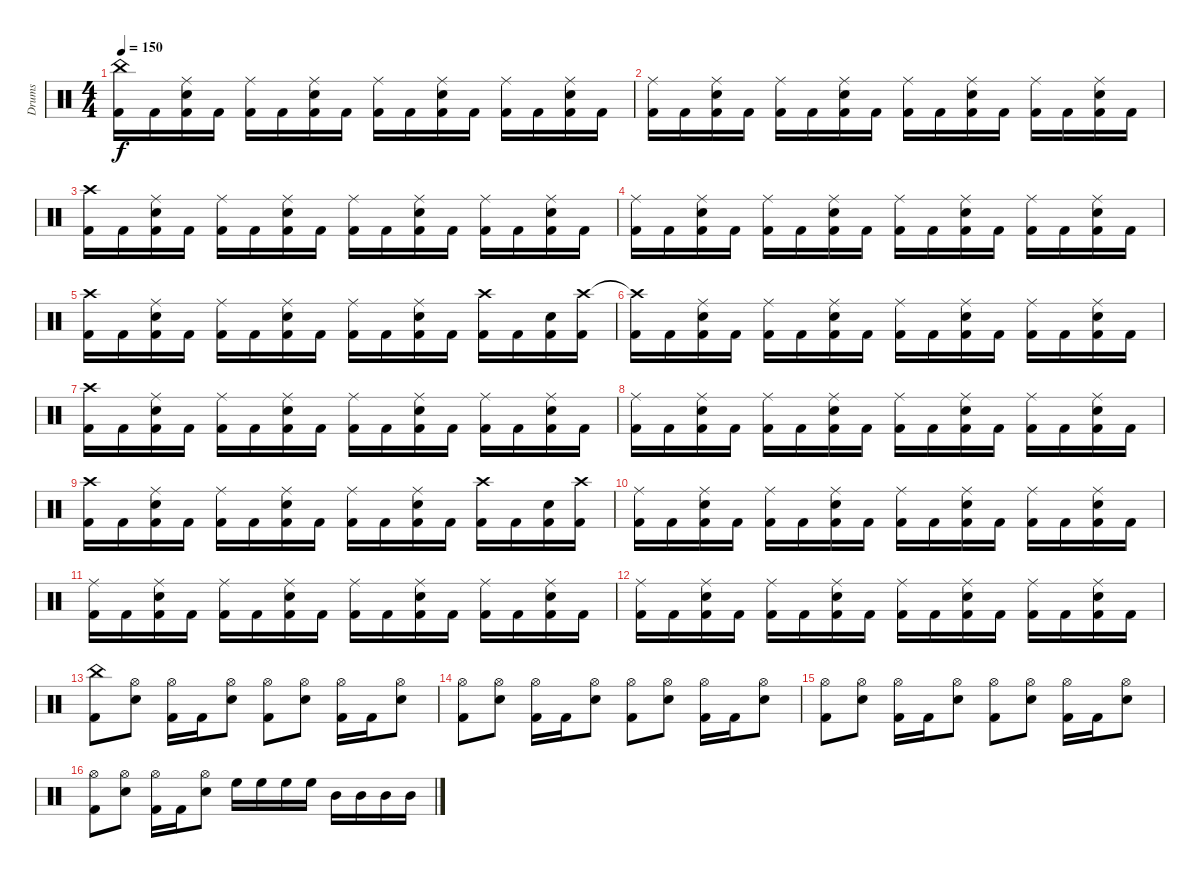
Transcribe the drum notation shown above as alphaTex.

\track ("Drums" "Drums") {instrument percussion}
\staff {score}
\articulation defaults
\ts (4 4)
\tempo 150
\clef neutral
\ks c
("China (hit)" "Kick (hit) 2").16{dy f} "Kick (hit) 2".16 ("Ride (middle)" "Snare (hit) 2" "Kick (hit) 2").16 "Kick (hit) 2".16 ("Ride (middle)" "Kick (hit) 2").16 "Kick (hit) 2".16 ("Ride (middle)" "Snare (hit) 2" "Kick (hit) 2").16 "Kick (hit) 2".16 ("Ride (middle)" "Kick (hit) 2").16 "Kick (hit) 2".16 ("Ride (middle)" "Snare (hit) 2" "Kick (hit) 2").16 "Kick (hit) 2".16 ("Ride (middle)" "Kick (hit) 2").16 "Kick (hit) 2".16 ("Ride (middle)" "Snare (hit) 2" "Kick (hit) 2").16 "Kick (hit) 2".16 |
("Ride (middle)" "Kick (hit) 2").16 "Kick (hit) 2".16 ("Ride (middle)" "Snare (hit) 2" "Kick (hit) 2").16 "Kick (hit) 2".16 ("Ride (middle)" "Kick (hit) 2").16 "Kick (hit) 2".16 ("Ride (middle)" "Snare (hit) 2" "Kick (hit) 2").16 "Kick (hit) 2".16 ("Ride (middle)" "Kick (hit) 2").16 "Kick (hit) 2".16 ("Ride (middle)" "Snare (hit) 2" "Kick (hit) 2").16 "Kick (hit) 2".16 ("Ride (middle)" "Kick (hit) 2").16 "Kick (hit) 2".16 ("Ride (middle)" "Snare (hit) 2" "Kick (hit) 2").16 "Kick (hit) 2".16 |
("Crash high (hit)" "Kick (hit) 2").16 "Kick (hit) 2".16 ("Ride (middle)" "Snare (hit) 2" "Kick (hit) 2").16 "Kick (hit) 2".16 ("Ride (middle)" "Kick (hit) 2").16 "Kick (hit) 2".16 ("Ride (middle)" "Snare (hit) 2" "Kick (hit) 2").16 "Kick (hit) 2".16 ("Ride (middle)" "Kick (hit) 2").16 "Kick (hit) 2".16 ("Ride (middle)" "Snare (hit) 2" "Kick (hit) 2").16 "Kick (hit) 2".16 ("Ride (middle)" "Kick (hit) 2").16 "Kick (hit) 2".16 ("Ride (middle)" "Snare (hit) 2" "Kick (hit) 2").16 "Kick (hit) 2".16 |
("Ride (middle)" "Kick (hit) 2").16 "Kick (hit) 2".16 ("Ride (middle)" "Snare (hit) 2" "Kick (hit) 2").16 "Kick (hit) 2".16 ("Ride (middle)" "Kick (hit) 2").16 "Kick (hit) 2".16 ("Ride (middle)" "Snare (hit) 2" "Kick (hit) 2").16 "Kick (hit) 2".16 ("Ride (middle)" "Kick (hit) 2").16 "Kick (hit) 2".16 ("Ride (middle)" "Snare (hit) 2" "Kick (hit) 2").16 "Kick (hit) 2".16 ("Ride (middle)" "Kick (hit) 2").16 "Kick (hit) 2".16 ("Ride (middle)" "Snare (hit) 2" "Kick (hit) 2").16 "Kick (hit) 2".16 |
("Crash high (hit)" "Kick (hit) 2").16 "Kick (hit) 2".16 ("Ride (middle)" "Snare (hit) 2" "Kick (hit) 2").16 "Kick (hit) 2".16 ("Ride (middle)" "Kick (hit) 2").16 "Kick (hit) 2".16 ("Ride (middle)" "Snare (hit) 2" "Kick (hit) 2").16 "Kick (hit) 2".16 ("Ride (middle)" "Kick (hit) 2").16 "Kick (hit) 2".16 ("Ride (middle)" "Snare (hit) 2" "Kick (hit) 2").16 "Kick (hit) 2".16 ("Crash high (hit)" "Kick (hit) 2").16 "Kick (hit) 2".16 ("Snare (hit) 2" "Kick (hit) 2").16 ("Crash high (hit)" "Kick (hit) 2").16 |
("Crash high (hit)"{t} "Kick (hit) 2").16 "Kick (hit) 2".16 ("Ride (middle)" "Snare (hit) 2" "Kick (hit) 2").16 "Kick (hit) 2".16 ("Ride (middle)" "Kick (hit) 2").16 "Kick (hit) 2".16 ("Ride (middle)" "Snare (hit) 2" "Kick (hit) 2").16 "Kick (hit) 2".16 ("Ride (middle)" "Kick (hit) 2").16 "Kick (hit) 2".16 ("Ride (middle)" "Snare (hit) 2" "Kick (hit) 2").16 "Kick (hit) 2".16 ("Ride (middle)" "Kick (hit) 2").16 "Kick (hit) 2".16 ("Ride (middle)" "Snare (hit) 2" "Kick (hit) 2").16 "Kick (hit) 2".16 |
("Crash high (hit)" "Kick (hit) 2").16 "Kick (hit) 2".16 ("Ride (middle)" "Snare (hit) 2" "Kick (hit) 2").16 "Kick (hit) 2".16 ("Ride (middle)" "Kick (hit) 2").16 "Kick (hit) 2".16 ("Ride (middle)" "Snare (hit) 2" "Kick (hit) 2").16 "Kick (hit) 2".16 ("Ride (middle)" "Kick (hit) 2").16 "Kick (hit) 2".16 ("Ride (middle)" "Snare (hit) 2" "Kick (hit) 2").16 "Kick (hit) 2".16 ("Ride (middle)" "Kick (hit) 2").16 "Kick (hit) 2".16 ("Ride (middle)" "Snare (hit) 2" "Kick (hit) 2").16 "Kick (hit) 2".16 |
("Ride (middle)" "Kick (hit) 2").16 "Kick (hit) 2".16 ("Ride (middle)" "Snare (hit) 2" "Kick (hit) 2").16 "Kick (hit) 2".16 ("Ride (middle)" "Kick (hit) 2").16 "Kick (hit) 2".16 ("Ride (middle)" "Snare (hit) 2" "Kick (hit) 2").16 "Kick (hit) 2".16 ("Ride (middle)" "Kick (hit) 2").16 "Kick (hit) 2".16 ("Ride (middle)" "Snare (hit) 2" "Kick (hit) 2").16 "Kick (hit) 2".16 ("Ride (middle)" "Kick (hit) 2").16 "Kick (hit) 2".16 ("Ride (middle)" "Snare (hit) 2" "Kick (hit) 2").16 "Kick (hit) 2".16 |
("Crash high (hit)" "Kick (hit) 2").16 "Kick (hit) 2".16 ("Ride (middle)" "Snare (hit) 2" "Kick (hit) 2").16 "Kick (hit) 2".16 ("Ride (middle)" "Kick (hit) 2").16 "Kick (hit) 2".16 ("Ride (middle)" "Snare (hit) 2" "Kick (hit) 2").16 "Kick (hit) 2".16 ("Ride (middle)" "Kick (hit) 2").16 "Kick (hit) 2".16 ("Ride (middle)" "Snare (hit) 2" "Kick (hit) 2").16 "Kick (hit) 2".16 ("Crash high (hit)" "Kick (hit) 2").16 "Kick (hit) 2".16 ("Snare (hit) 2" "Kick (hit) 2").16 ("Crash high (hit)" "Kick (hit) 2").16 |
("Ride (middle)" "Kick (hit) 2").16 "Kick (hit) 2".16 ("Ride (middle)" "Snare (hit) 2" "Kick (hit) 2").16 "Kick (hit) 2".16 ("Ride (middle)" "Kick (hit) 2").16 "Kick (hit) 2".16 ("Ride (middle)" "Snare (hit) 2" "Kick (hit) 2").16 "Kick (hit) 2".16 ("Ride (middle)" "Kick (hit) 2").16 "Kick (hit) 2".16 ("Ride (middle)" "Snare (hit) 2" "Kick (hit) 2").16 "Kick (hit) 2".16 ("Ride (middle)" "Kick (hit) 2").16 "Kick (hit) 2".16 ("Ride (middle)" "Snare (hit) 2" "Kick (hit) 2").16 "Kick (hit) 2".16 |
("Ride (middle)" "Kick (hit) 2").16 "Kick (hit) 2".16 ("Ride (middle)" "Snare (hit) 2" "Kick (hit) 2").16 "Kick (hit) 2".16 ("Ride (middle)" "Kick (hit) 2").16 "Kick (hit) 2".16 ("Ride (middle)" "Snare (hit) 2" "Kick (hit) 2").16 "Kick (hit) 2".16 ("Ride (middle)" "Kick (hit) 2").16 "Kick (hit) 2".16 ("Ride (middle)" "Snare (hit) 2" "Kick (hit) 2").16 "Kick (hit) 2".16 ("Ride (middle)" "Kick (hit) 2").16 "Kick (hit) 2".16 ("Ride (middle)" "Snare (hit) 2" "Kick (hit) 2").16 "Kick (hit) 2".16 |
("Ride (middle)" "Kick (hit) 2").16 "Kick (hit) 2".16 ("Ride (middle)" "Snare (hit) 2" "Kick (hit) 2").16 "Kick (hit) 2".16 ("Ride (middle)" "Kick (hit) 2").16 "Kick (hit) 2".16 ("Ride (middle)" "Snare (hit) 2" "Kick (hit) 2").16 "Kick (hit) 2".16 ("Ride (middle)" "Kick (hit) 2").16 "Kick (hit) 2".16 ("Ride (middle)" "Snare (hit) 2" "Kick (hit) 2").16 "Kick (hit) 2".16 ("Ride (middle)" "Kick (hit) 2").16 "Kick (hit) 2".16 ("Ride (middle)" "Snare (hit) 2" "Kick (hit) 2").16 "Kick (hit) 2".16 |
("China (hit)" "Kick (hit) 2").8 ("Hi-Hat (open)" "Snare (hit) 2").8 ("Hi-Hat (open)" "Kick (hit) 2").16 "Kick (hit) 2".16 ("Hi-Hat (open)" "Snare (hit) 2").8 ("Hi-Hat (open)" "Kick (hit) 2").8 ("Hi-Hat (open)" "Snare (hit) 2").8 ("Hi-Hat (open)" "Kick (hit) 2").16 "Kick (hit) 2".16 ("Hi-Hat (open)" "Snare (hit) 2").8 |
("Hi-Hat (open)" "Kick (hit) 2").8 ("Hi-Hat (open)" "Snare (hit) 2").8 ("Hi-Hat (open)" "Kick (hit) 2").16 "Kick (hit) 2".16 ("Hi-Hat (open)" "Snare (hit) 2").8 ("Hi-Hat (open)" "Kick (hit) 2").8 ("Hi-Hat (open)" "Snare (hit) 2").8 ("Hi-Hat (open)" "Kick (hit) 2").16 "Kick (hit) 2".16 ("Hi-Hat (open)" "Snare (hit) 2").8 |
("Hi-Hat (open)" "Kick (hit) 2").8 ("Hi-Hat (open)" "Snare (hit) 2").8 ("Hi-Hat (open)" "Kick (hit) 2").16 "Kick (hit) 2".16 ("Hi-Hat (open)" "Snare (hit) 2").8 ("Hi-Hat (open)" "Kick (hit) 2").8 ("Hi-Hat (open)" "Snare (hit) 2").8 ("Hi-Hat (open)" "Kick (hit) 2").16 "Kick (hit) 2".16 ("Hi-Hat (open)" "Snare (hit) 2").8 |
("Hi-Hat (open)" "Kick (hit) 2").8 ("Hi-Hat (open)" "Snare (hit) 2").8 ("Hi-Hat (open)" "Kick (hit) 2").16 "Kick (hit) 2".16 ("Hi-Hat (open)" "Snare (hit) 2").8 "High Floor Tom (hit)".16 "High Floor Tom (hit)".16 "High Floor Tom (hit)".16 "High Floor Tom (hit)".16 "Mid Tom (hit)".16 "Mid Tom (hit)".16 "Mid Tom (hit)".16 "Mid Tom (hit)".16
